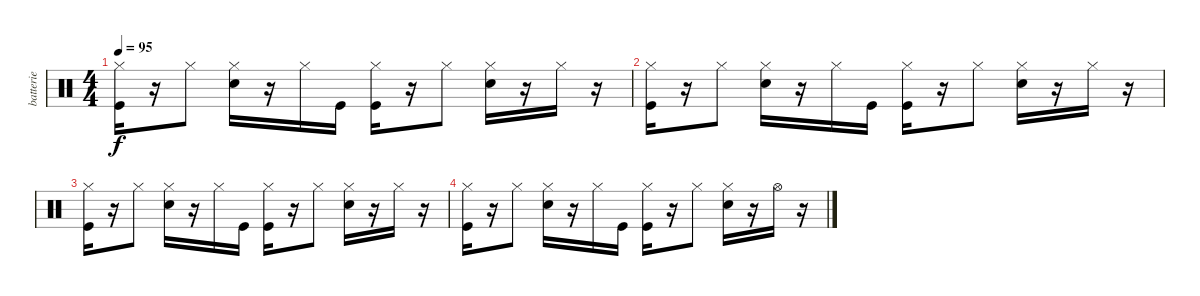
\track ("batterie" "batterie") {instrument percussion}
\staff {score}
\articulation defaults
\ts (4 4)
\tempo 95
\clef neutral
\ks c
("Kick (hit)" "Hi-Hat (closed)").16{dy f} r.16 "Hi-Hat (closed)".8 ("Snare (hit) 2" "Hi-Hat (closed)").16 r.16 "Hi-Hat (closed)".16 "Kick (hit)".16 ("Kick (hit)" "Hi-Hat (closed)").16 r.16 "Hi-Hat (closed)".8 ("Snare (hit) 2" "Hi-Hat (closed)").16 r.16 "Hi-Hat (closed)".16 r.16 |
("Kick (hit)" "Hi-Hat (closed)").16 r.16 "Hi-Hat (closed)".8 ("Snare (hit) 2" "Hi-Hat (closed)").16 r.16 "Hi-Hat (closed)".16 "Kick (hit)".16 ("Kick (hit)" "Hi-Hat (closed)").16 r.16 "Hi-Hat (closed)".8 ("Snare (hit) 2" "Hi-Hat (closed)").16 r.16 "Hi-Hat (closed)".16 r.16 |
("Kick (hit)" "Hi-Hat (closed)").16 r.16 "Hi-Hat (closed)".8 ("Snare (hit) 2" "Hi-Hat (closed)").16 r.16 "Hi-Hat (closed)".16 "Kick (hit)".16 ("Kick (hit)" "Hi-Hat (closed)").16 r.16 "Hi-Hat (closed)".8 ("Snare (hit) 2" "Hi-Hat (closed)").16 r.16 "Hi-Hat (closed)".16 r.16 |
("Kick (hit)" "Hi-Hat (closed)").16 r.16 "Hi-Hat (closed)".8 ("Snare (hit) 2" "Hi-Hat (closed)").16 r.16 "Hi-Hat (closed)".16 "Kick (hit)".16 ("Kick (hit)" "Hi-Hat (closed)").16 r.16 "Hi-Hat (closed)".8 ("Snare (hit) 2" "Hi-Hat (closed)").16 r.16 "Hi-Hat (open)".16 r.16
